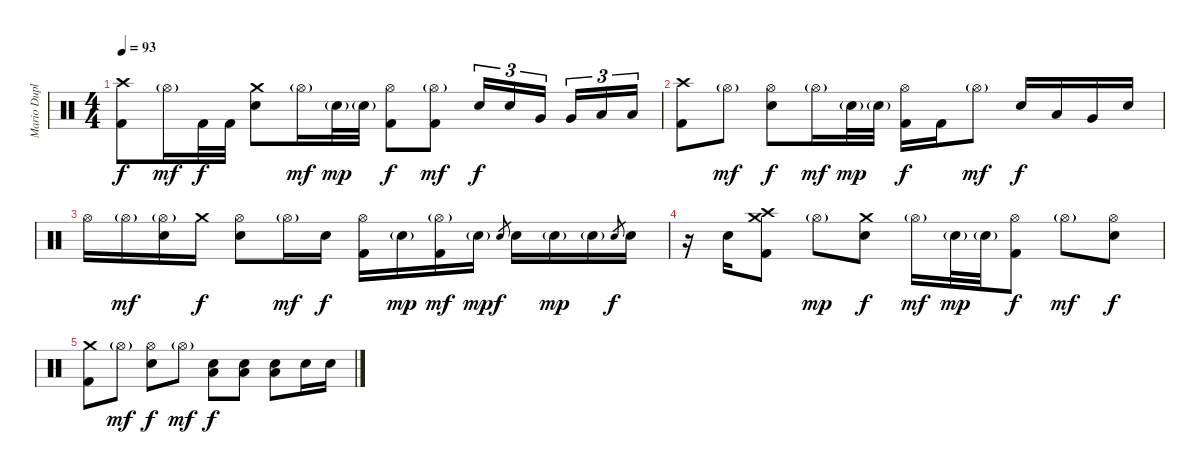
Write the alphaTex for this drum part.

\track ("Mario Duplantier" "Mario Dupl") {instrument percussion}
\staff {score}
\articulation defaults
\ts (4 4)
\tempo 93
\clef neutral
\ks c
("Crash high (hit)" "Kick (hit) 2").8{dy f} "Hi-Hat (open)"{g}.16{dy mf} "Kick (hit) 2".32{dy f} "Kick (hit) 2".32 ("Crash medium (hit)" "Electric Snare (hit)").8 "Hi-Hat (open)"{g}.16{dy mf} "Electric Snare (hit)"{g}.32{dy mp} "Electric Snare (hit)"{g}.32 ("Hi-Hat (open)" "Kick (hit) 2").8{dy f} ("Hi-Hat (open)"{g} "Kick (hit) 2").8{dy mf} "Electric Snare (hit)".16{tu (3 2) dy f} "Electric Snare (hit)".16{tu (3 2)} "Very Low Tom (hit)".16{tu (3 2) beam splitsecondary} "Very Low Tom (hit)".16{tu (3 2)} "Low Floor Tom (hit)".16{tu (3 2)} "Low Floor Tom (hit)".16{tu (3 2)} |
("Crash high (hit)" "Kick (hit) 2").8 "Hi-Hat (open)"{g}.8{dy mf} ("Hi-Hat (open)" "Electric Snare (hit)").8{dy f} "Hi-Hat (open)"{g}.16{dy mf} "Electric Snare (hit)"{g}.32{dy mp} "Electric Snare (hit)"{g}.32 ("Hi-Hat (open)" "Kick (hit) 2").16{dy f} "Kick (hit) 2".16 "Hi-Hat (open)"{g}.8{dy mf} "Electric Snare (hit)".16{dy f} "Low Tom (hit)".16 "Very Low Tom (hit)".16 "Electric Snare (hit)".16 |
"Hi-Hat (open)".16 "Hi-Hat (open)"{g}.16{dy mf} ("Hi-Hat (open)"{g} "Electric Snare (hit)").16 "Crash medium (hit)".16{dy f} ("Hi-Hat (open)" "Electric Snare (hit)").8 "Hi-Hat (open)"{g}.16{dy mf} "Electric Snare (hit)".16{dy f} ("Hi-Hat (open)" "Kick (hit) 2").16 "Electric Snare (hit)"{g}.16{dy mp} ("Hi-Hat (open)"{g} "Kick (hit) 2").16{dy mf} "Electric Snare (hit)"{g}.16{dy mp} "Electric Snare (hit)".8{gr dy f} "Electric Snare (hit)".16 "Electric Snare (hit)"{g}.16{dy mp} "Electric Snare (hit)"{g}.16 "Electric Snare (hit)".8{gr dy f} "Electric Snare (hit)".16 |
r.16 "Electric Snare (hit)".16 ("Crash high (hit)" "Crash medium (hit)" "Kick (hit) 2").8 "Hi-Hat (open)"{g}.8{dy mp} ("Crash medium (hit)" "Electric Snare (hit)").8{dy f} "Hi-Hat (open)"{g}.16{dy mf} "Electric Snare (hit)"{g}.32{dy mp} "Electric Snare (hit)"{g}.32 ("Hi-Hat (open)" "Kick (hit) 2").8{dy f} "Hi-Hat (open)"{g}.8{dy mf} ("Hi-Hat (open)" "Electric Snare (hit)").8{dy f} |
("Crash medium (hit)" "Kick (hit) 2").8 "Hi-Hat (open)"{g}.8{dy mf} ("Hi-Hat (open)" "Electric Snare (hit)").8{dy f} "Hi-Hat (open)"{g}.8{dy mf} ("Low Floor Tom (hit)" "Electric Snare (hit)").8{dy f} ("Low Floor Tom (hit)" "Electric Snare (hit)").8 ("Low Floor Tom (hit)" "Electric Snare (hit)").8 "Electric Snare (hit)".16 "Electric Snare (hit)".16
